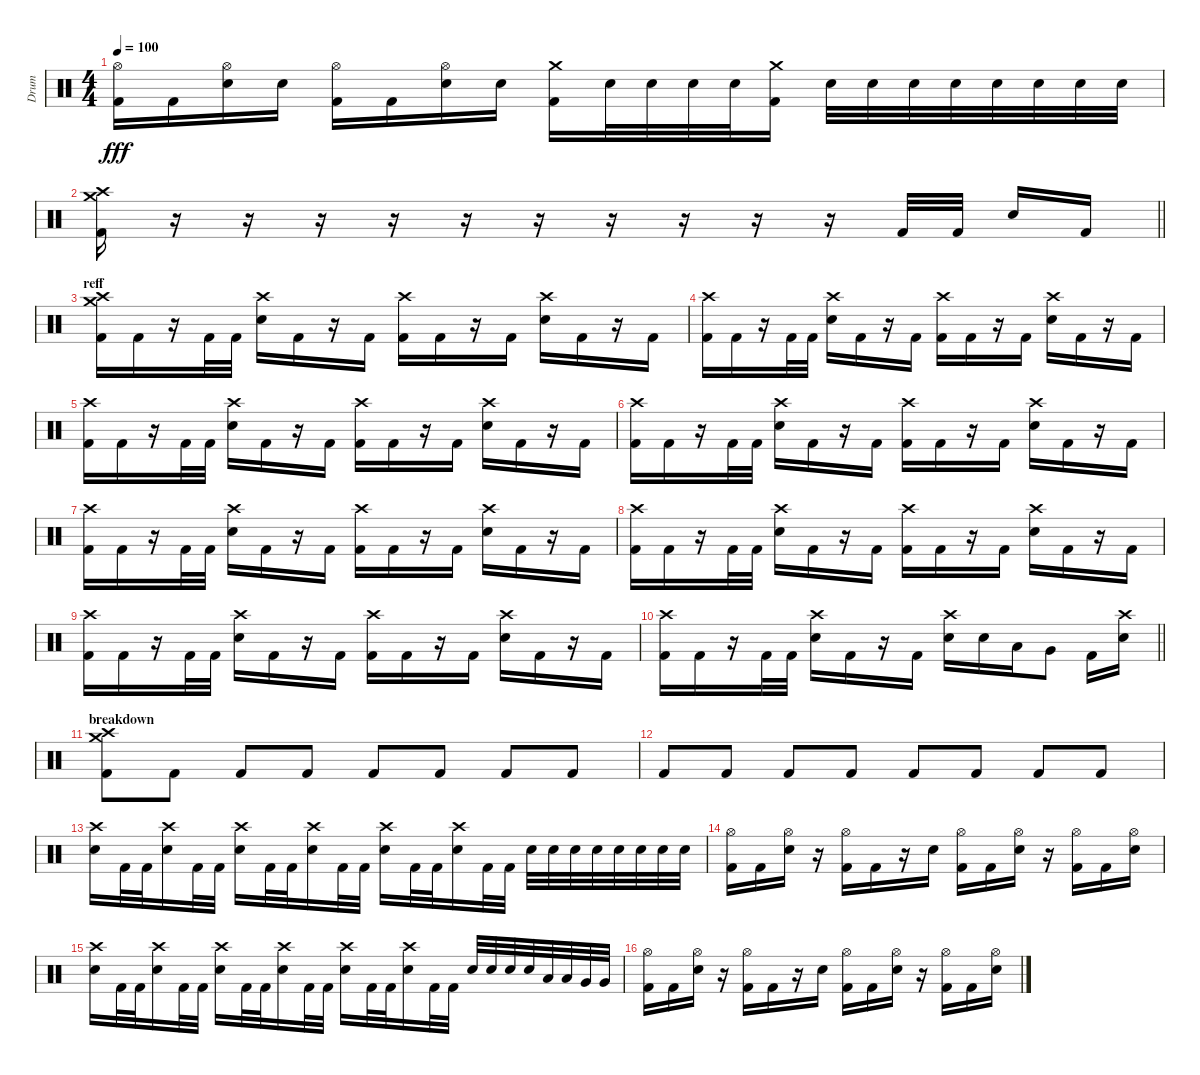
\track ("Drum" "Drum") {instrument percussion}
\staff {score}
\articulation defaults
\ts (4 4)
\tempo 100
\clef neutral
\ks c
("Hi-Hat (open)" "Kick (hit) 2").16{dy fff} "Kick (hit) 2".16 ("Hi-Hat (open)" "Electric Snare (hit)").16 "Electric Snare (hit)".16 ("Hi-Hat (open)" "Kick (hit) 2").16 "Kick (hit) 2".16 ("Hi-Hat (open)" "Electric Snare (hit)").16 "Electric Snare (hit)".16 ("Crash medium (hit)" "Kick (hit) 2").16 "Electric Snare (hit)".32 "Electric Snare (hit)".32 "Electric Snare (hit)".32 "Electric Snare (hit)".32 ("Crash medium (hit)" "Kick (hit) 2").16 "Electric Snare (hit)".32 "Electric Snare (hit)".32 "Electric Snare (hit)".32 "Electric Snare (hit)".32 "Electric Snare (hit)".32 "Electric Snare (hit)".32 "Electric Snare (hit)".32 "Electric Snare (hit)".32 |
\barLineRight lightlight
("Crash high (hit)" "Crash medium (hit)" "Kick (hit) 2").16 r.16 r.16 r.16 r.16 r.16 r.16 r.16 r.16 r.16 r.16 "Kick (hit) 2".32 "Kick (hit) 2".32 "Electric Snare (hit)".16 "Kick (hit) 2".16 |
\section ("" "reff")
("Crash high (hit)" "Crash medium (hit)" "Kick (hit) 2").16 "Kick (hit) 2".16 r.16 "Kick (hit) 2".32 "Kick (hit) 2".32 ("Crash high (hit)" "Electric Snare (hit)").16 "Kick (hit) 2".16 r.16 "Kick (hit) 2".16 ("Crash high (hit)" "Kick (hit) 2").16 "Kick (hit) 2".16 r.16 "Kick (hit) 2".16 ("Crash high (hit)" "Electric Snare (hit)").16 "Kick (hit) 2".16 r.16 "Kick (hit) 2".16 |
("Crash high (hit)" "Kick (hit) 2").16 "Kick (hit) 2".16 r.16 "Kick (hit) 2".32 "Kick (hit) 2".32 ("Crash high (hit)" "Electric Snare (hit)").16 "Kick (hit) 2".16 r.16 "Kick (hit) 2".16 ("Crash high (hit)" "Kick (hit) 2").16 "Kick (hit) 2".16 r.16 "Kick (hit) 2".16 ("Crash high (hit)" "Electric Snare (hit)").16 "Kick (hit) 2".16 r.16 "Kick (hit) 2".16 |
("Crash high (hit)" "Kick (hit) 2").16 "Kick (hit) 2".16 r.16 "Kick (hit) 2".32 "Kick (hit) 2".32 ("Crash high (hit)" "Electric Snare (hit)").16 "Kick (hit) 2".16 r.16 "Kick (hit) 2".16 ("Crash high (hit)" "Kick (hit) 2").16 "Kick (hit) 2".16 r.16 "Kick (hit) 2".16 ("Crash high (hit)" "Electric Snare (hit)").16 "Kick (hit) 2".16 r.16 "Kick (hit) 2".16 |
("Crash high (hit)" "Kick (hit) 2").16 "Kick (hit) 2".16 r.16 "Kick (hit) 2".32 "Kick (hit) 2".32 ("Crash high (hit)" "Electric Snare (hit)").16 "Kick (hit) 2".16 r.16 "Kick (hit) 2".16 ("Crash high (hit)" "Kick (hit) 2").16 "Kick (hit) 2".16 r.16 "Kick (hit) 2".16 ("Crash high (hit)" "Electric Snare (hit)").16 "Kick (hit) 2".16 r.16 "Kick (hit) 2".16 |
("Crash high (hit)" "Kick (hit) 2").16 "Kick (hit) 2".16 r.16 "Kick (hit) 2".32 "Kick (hit) 2".32 ("Crash high (hit)" "Electric Snare (hit)").16 "Kick (hit) 2".16 r.16 "Kick (hit) 2".16 ("Crash high (hit)" "Kick (hit) 2").16 "Kick (hit) 2".16 r.16 "Kick (hit) 2".16 ("Crash high (hit)" "Electric Snare (hit)").16 "Kick (hit) 2".16 r.16 "Kick (hit) 2".16 |
("Crash high (hit)" "Kick (hit) 2").16 "Kick (hit) 2".16 r.16 "Kick (hit) 2".32 "Kick (hit) 2".32 ("Crash high (hit)" "Electric Snare (hit)").16 "Kick (hit) 2".16 r.16 "Kick (hit) 2".16 ("Crash high (hit)" "Kick (hit) 2").16 "Kick (hit) 2".16 r.16 "Kick (hit) 2".16 ("Crash high (hit)" "Electric Snare (hit)").16 "Kick (hit) 2".16 r.16 "Kick (hit) 2".16 |
("Crash high (hit)" "Kick (hit) 2").16 "Kick (hit) 2".16 r.16 "Kick (hit) 2".32 "Kick (hit) 2".32 ("Crash high (hit)" "Electric Snare (hit)").16 "Kick (hit) 2".16 r.16 "Kick (hit) 2".16 ("Crash high (hit)" "Kick (hit) 2").16 "Kick (hit) 2".16 r.16 "Kick (hit) 2".16 ("Crash high (hit)" "Electric Snare (hit)").16 "Kick (hit) 2".16 r.16 "Kick (hit) 2".16 |
\barLineRight lightlight
("Crash high (hit)" "Kick (hit) 2").16 "Kick (hit) 2".16 r.16 "Kick (hit) 2".32 "Kick (hit) 2".32 ("Crash high (hit)" "Electric Snare (hit)").16 "Kick (hit) 2".16 r.16 "Kick (hit) 2".16 ("Crash high (hit)" "Electric Snare (hit)").16 "Electric Snare (hit)".16 "Low Tom (hit)".16 "Very Low Tom (hit)".8 "Kick (hit) 2".16 ("Crash high (hit)" "Electric Snare (hit)").16 |
\section ("" "breakdown")
("Crash high (hit)" "Crash medium (hit)" "Kick (hit) 2").8 "Kick (hit) 2".8 "Kick (hit) 2".8 "Kick (hit) 2".8 "Kick (hit) 2".8 "Kick (hit) 2".8 "Kick (hit) 2".8 "Kick (hit) 2".8 |
"Kick (hit) 2".8 "Kick (hit) 2".8 "Kick (hit) 2".8 "Kick (hit) 2".8 "Kick (hit) 2".8 "Kick (hit) 2".8 "Kick (hit) 2".8 "Kick (hit) 2".8 |
("Crash high (hit)" "Electric Snare (hit)").16 "Kick (hit) 2".32 "Kick (hit) 2".32 ("Crash high (hit)" "Electric Snare (hit)").16 "Kick (hit) 2".32 "Kick (hit) 2".32 ("Crash high (hit)" "Electric Snare (hit)").16 "Kick (hit) 2".32 "Kick (hit) 2".32 ("Crash high (hit)" "Electric Snare (hit)").16 "Kick (hit) 2".32 "Kick (hit) 2".32 ("Crash high (hit)" "Electric Snare (hit)").16 "Kick (hit) 2".32 "Kick (hit) 2".32 ("Crash high (hit)" "Electric Snare (hit)").16 "Kick (hit) 2".32 "Kick (hit) 2".32 "Electric Snare (hit)".32 "Electric Snare (hit)".32 "Electric Snare (hit)".32 "Electric Snare (hit)".32 "Electric Snare (hit)".32 "Electric Snare (hit)".32 "Electric Snare (hit)".32 "Electric Snare (hit)".32 |
("Hi-Hat (open)" "Kick (hit) 2").16 "Kick (hit) 2".16 ("Hi-Hat (open)" "Electric Snare (hit)").16 r.16 ("Hi-Hat (open)" "Kick (hit) 2").16 "Kick (hit) 2".16 r.16 "Electric Snare (hit)".16 ("Hi-Hat (open)" "Kick (hit) 2").16 "Kick (hit) 2".16 ("Hi-Hat (open)" "Electric Snare (hit)").16 r.16 ("Hi-Hat (open)" "Kick (hit) 2").16 "Kick (hit) 2".16 ("Hi-Hat (open)" "Electric Snare (hit)").16 |
("Crash high (hit)" "Electric Snare (hit)").16 "Kick (hit) 2".32 "Kick (hit) 2".32 ("Crash high (hit)" "Electric Snare (hit)").16 "Kick (hit) 2".32 "Kick (hit) 2".32 ("Crash high (hit)" "Electric Snare (hit)").16 "Kick (hit) 2".32 "Kick (hit) 2".32 ("Crash high (hit)" "Electric Snare (hit)").16 "Kick (hit) 2".32 "Kick (hit) 2".32 ("Crash high (hit)" "Electric Snare (hit)").16 "Kick (hit) 2".32 "Kick (hit) 2".32 ("Crash high (hit)" "Electric Snare (hit)").16 "Kick (hit) 2".32 "Kick (hit) 2".32 "Electric Snare (hit)".32 "Electric Snare (hit)".32 "Electric Snare (hit)".32 "Electric Snare (hit)".32 "Low Tom (hit)".32 "Low Tom (hit)".32 "Very Low Tom (hit)".32 "Very Low Tom (hit)".32 |
("Hi-Hat (open)" "Kick (hit) 2").16 "Kick (hit) 2".16 ("Hi-Hat (open)" "Electric Snare (hit)").16 r.16 ("Hi-Hat (open)" "Kick (hit) 2").16 "Kick (hit) 2".16 r.16 "Electric Snare (hit)".16 ("Hi-Hat (open)" "Kick (hit) 2").16 "Kick (hit) 2".16 ("Hi-Hat (open)" "Electric Snare (hit)").16 r.16 ("Hi-Hat (open)" "Kick (hit) 2").16 "Kick (hit) 2".16 ("Hi-Hat (open)" "Electric Snare (hit)").16
